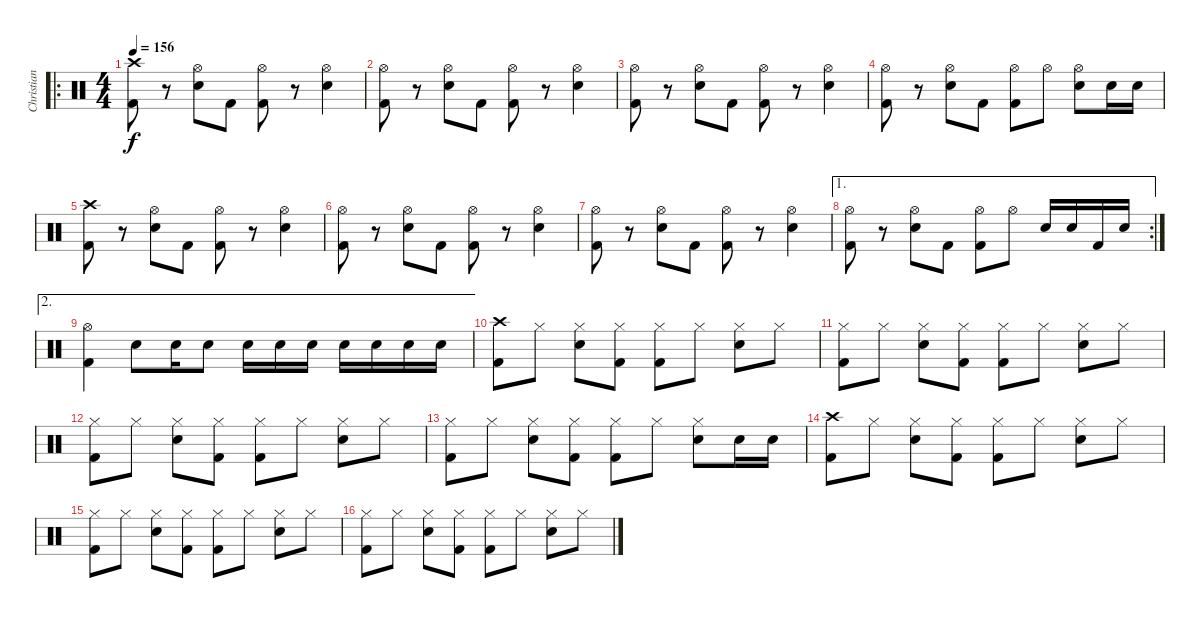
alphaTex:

\track ("Christian" "Christian") {instrument percussion}
\staff {score}
\articulation defaults
\ro
\ts (4 4)
\tempo 156
\clef neutral
\ks c
("Crash high (hit)" "Kick (hit) 2").8{dy f} r.8 ("Hi-Hat (open)" "Snare (hit) 2").8 "Kick (hit) 2".8 ("Hi-Hat (open)" "Kick (hit) 2").8 r.8 ("Hi-Hat (open)" "Snare (hit) 2").4 |
("Hi-Hat (open)" "Kick (hit) 2").8 r.8 ("Hi-Hat (open)" "Snare (hit) 2").8 "Kick (hit) 2".8 ("Hi-Hat (open)" "Kick (hit) 2").8 r.8 ("Hi-Hat (open)" "Snare (hit) 2").4 |
("Hi-Hat (open)" "Kick (hit) 2").8 r.8 ("Hi-Hat (open)" "Snare (hit) 2").8 "Kick (hit) 2".8 ("Hi-Hat (open)" "Kick (hit) 2").8 r.8 ("Hi-Hat (open)" "Snare (hit) 2").4 |
("Hi-Hat (open)" "Kick (hit) 2").8 r.8 ("Hi-Hat (open)" "Snare (hit) 2").8 "Kick (hit) 2".8 ("Hi-Hat (open)" "Kick (hit) 2").8 "Hi-Hat (open)".8 ("Hi-Hat (open)" "Snare (hit) 2").8 "Snare (hit) 2".16 "Snare (hit) 2".16 |
("Crash high (hit)" "Kick (hit) 2").8 r.8 ("Hi-Hat (open)" "Snare (hit) 2").8 "Kick (hit) 2".8 ("Hi-Hat (open)" "Kick (hit) 2").8 r.8 ("Hi-Hat (open)" "Snare (hit) 2").4 |
("Hi-Hat (open)" "Kick (hit) 2").8 r.8 ("Hi-Hat (open)" "Snare (hit) 2").8 "Kick (hit) 2".8 ("Hi-Hat (open)" "Kick (hit) 2").8 r.8 ("Hi-Hat (open)" "Snare (hit) 2").4 |
("Hi-Hat (open)" "Kick (hit) 2").8 r.8 ("Hi-Hat (open)" "Snare (hit) 2").8 "Kick (hit) 2".8 ("Hi-Hat (open)" "Kick (hit) 2").8 r.8 ("Hi-Hat (open)" "Snare (hit) 2").4 |
\ae 1
\rc 2
("Hi-Hat (open)" "Kick (hit) 2").8 r.8 ("Hi-Hat (open)" "Snare (hit) 2").8 "Kick (hit) 2".8 ("Hi-Hat (open)" "Kick (hit) 2").8 "Hi-Hat (open)".8 "Snare (hit) 2".16 "Snare (hit) 2".16 "Kick (hit) 2".16 "Snare (hit) 2".16 |
\ae 2
("Hi-Hat (open)" "Kick (hit) 2").4 "Snare (hit) 2".8 "Snare (hit) 2".16 "Snare (hit) 2".8 "Snare (hit) 2".16 "Snare (hit) 2".16 "Snare (hit) 2".16 "Snare (hit) 2".16 "Snare (hit) 2".16 "Snare (hit) 2".16 "Snare (hit) 2".16 |
("Crash high (hit)" "Kick (hit) 2").8 "Hi-Hat (closed)".8 ("Hi-Hat (closed)" "Snare (hit) 2").8 ("Hi-Hat (closed)" "Kick (hit) 2").8 ("Hi-Hat (closed)" "Kick (hit) 2").8 "Hi-Hat (closed)".8 ("Hi-Hat (closed)" "Snare (hit) 2").8 "Hi-Hat (closed)".8 |
("Hi-Hat (closed)" "Kick (hit) 2").8 "Hi-Hat (closed)".8 ("Hi-Hat (closed)" "Snare (hit) 2").8 ("Hi-Hat (closed)" "Kick (hit) 2").8 ("Hi-Hat (closed)" "Kick (hit) 2").8 "Hi-Hat (closed)".8 ("Hi-Hat (closed)" "Snare (hit) 2").8 "Hi-Hat (closed)".8 |
("Hi-Hat (closed)" "Kick (hit) 2").8 "Hi-Hat (closed)".8 ("Hi-Hat (closed)" "Snare (hit) 2").8 ("Hi-Hat (closed)" "Kick (hit) 2").8 ("Hi-Hat (closed)" "Kick (hit) 2").8 "Hi-Hat (closed)".8 ("Hi-Hat (closed)" "Snare (hit) 2").8 "Hi-Hat (closed)".8 |
("Hi-Hat (closed)" "Kick (hit) 2").8 "Hi-Hat (closed)".8 ("Hi-Hat (closed)" "Snare (hit) 2").8 ("Hi-Hat (closed)" "Kick (hit) 2").8 ("Hi-Hat (closed)" "Kick (hit) 2").8 "Hi-Hat (closed)".8 ("Hi-Hat (closed)" "Snare (hit) 2").8 "Snare (hit) 2".16 "Snare (hit) 2".16 |
("Crash high (hit)" "Kick (hit) 2").8 "Hi-Hat (closed)".8 ("Hi-Hat (closed)" "Snare (hit) 2").8 ("Hi-Hat (closed)" "Kick (hit) 2").8 ("Hi-Hat (closed)" "Kick (hit) 2").8 "Hi-Hat (closed)".8 ("Hi-Hat (closed)" "Snare (hit) 2").8 "Hi-Hat (closed)".8 |
("Hi-Hat (closed)" "Kick (hit) 2").8 "Hi-Hat (closed)".8 ("Hi-Hat (closed)" "Snare (hit) 2").8 ("Hi-Hat (closed)" "Kick (hit) 2").8 ("Hi-Hat (closed)" "Kick (hit) 2").8 "Hi-Hat (closed)".8 ("Hi-Hat (closed)" "Snare (hit) 2").8 "Hi-Hat (closed)".8 |
("Hi-Hat (closed)" "Kick (hit) 2").8 "Hi-Hat (closed)".8 ("Hi-Hat (closed)" "Snare (hit) 2").8 ("Hi-Hat (closed)" "Kick (hit) 2").8 ("Hi-Hat (closed)" "Kick (hit) 2").8 "Hi-Hat (closed)".8 ("Hi-Hat (closed)" "Snare (hit) 2").8 "Hi-Hat (closed)".8
